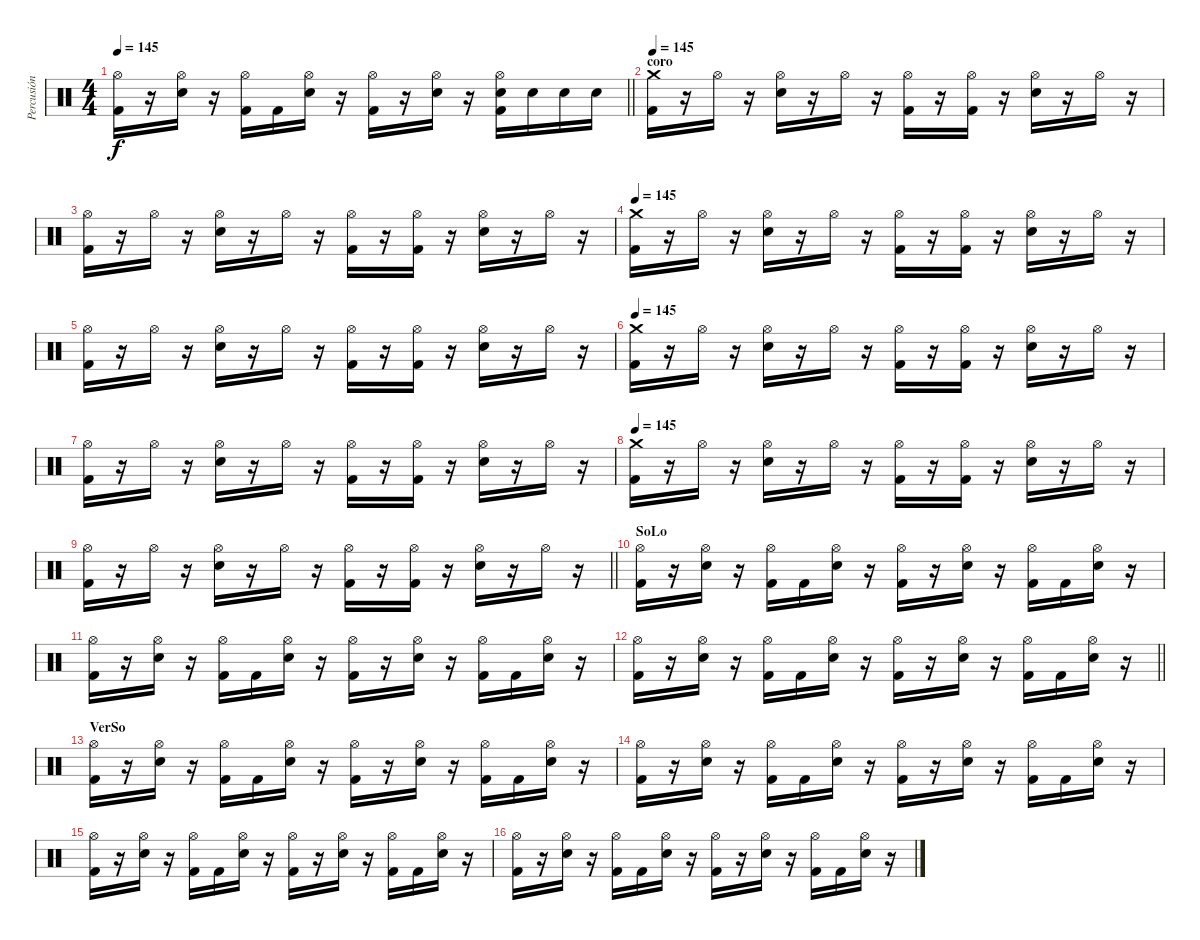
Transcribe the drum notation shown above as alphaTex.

\track ("Percusión" "Percusión") {instrument percussion}
\staff {score}
\articulation defaults
\ts (4 4)
\tempo 145
\clef neutral
\barLineRight lightlight
\ks c
("Hi-Hat (open)" "Kick (hit) 2").16{dy f} r.16 ("Hi-Hat (open)" "Electric Snare (hit)").16 r.16 ("Hi-Hat (open)" "Kick (hit) 2").16 "Kick (hit) 2".16 ("Hi-Hat (open)" "Electric Snare (hit)").16 r.16 ("Hi-Hat (open)" "Kick (hit) 2").16 r.16 ("Hi-Hat (open)" "Electric Snare (hit)").16 r.16 ("Hi-Hat (open)" "Electric Snare (hit)" "Kick (hit) 2").16 "Electric Snare (hit)".16 "Electric Snare (hit)".16 "Electric Snare (hit)".16 |
\section ("" "coro")
\tempo 145
("Crash medium (hit)" "Kick (hit) 2").16 r.16 "Hi-Hat (open)".16 r.16 ("Hi-Hat (open)" "Electric Snare (hit)").16 r.16 "Hi-Hat (open)".16 r.16 ("Hi-Hat (open)" "Kick (hit) 2").16 r.16 ("Hi-Hat (open)" "Kick (hit) 2").16 r.16 ("Hi-Hat (open)" "Electric Snare (hit)").16 r.16 "Hi-Hat (open)".16 r.16 |
("Hi-Hat (open)" "Kick (hit) 2").16 r.16 "Hi-Hat (open)".16 r.16 ("Hi-Hat (open)" "Electric Snare (hit)").16 r.16 "Hi-Hat (open)".16 r.16 ("Hi-Hat (open)" "Kick (hit) 2").16 r.16 ("Hi-Hat (open)" "Kick (hit) 2").16 r.16 ("Hi-Hat (open)" "Electric Snare (hit)").16 r.16 "Hi-Hat (open)".16 r.16 |
\tempo 145
("Crash medium (hit)" "Kick (hit) 2").16 r.16 "Hi-Hat (open)".16 r.16 ("Hi-Hat (open)" "Electric Snare (hit)").16 r.16 "Hi-Hat (open)".16 r.16 ("Hi-Hat (open)" "Kick (hit) 2").16 r.16 ("Hi-Hat (open)" "Kick (hit) 2").16 r.16 ("Hi-Hat (open)" "Electric Snare (hit)").16 r.16 "Hi-Hat (open)".16 r.16 |
("Hi-Hat (open)" "Kick (hit) 2").16 r.16 "Hi-Hat (open)".16 r.16 ("Hi-Hat (open)" "Electric Snare (hit)").16 r.16 "Hi-Hat (open)".16 r.16 ("Hi-Hat (open)" "Kick (hit) 2").16 r.16 ("Hi-Hat (open)" "Kick (hit) 2").16 r.16 ("Hi-Hat (open)" "Electric Snare (hit)").16 r.16 "Hi-Hat (open)".16 r.16 |
\tempo 145
("Crash medium (hit)" "Kick (hit) 2").16 r.16 "Hi-Hat (open)".16 r.16 ("Hi-Hat (open)" "Electric Snare (hit)").16 r.16 "Hi-Hat (open)".16 r.16 ("Hi-Hat (open)" "Kick (hit) 2").16 r.16 ("Hi-Hat (open)" "Kick (hit) 2").16 r.16 ("Hi-Hat (open)" "Electric Snare (hit)").16 r.16 "Hi-Hat (open)".16 r.16 |
("Hi-Hat (open)" "Kick (hit) 2").16 r.16 "Hi-Hat (open)".16 r.16 ("Hi-Hat (open)" "Electric Snare (hit)").16 r.16 "Hi-Hat (open)".16 r.16 ("Hi-Hat (open)" "Kick (hit) 2").16 r.16 ("Hi-Hat (open)" "Kick (hit) 2").16 r.16 ("Hi-Hat (open)" "Electric Snare (hit)").16 r.16 "Hi-Hat (open)".16 r.16 |
\tempo 145
("Crash medium (hit)" "Kick (hit) 2").16 r.16 "Hi-Hat (open)".16 r.16 ("Hi-Hat (open)" "Electric Snare (hit)").16 r.16 "Hi-Hat (open)".16 r.16 ("Hi-Hat (open)" "Kick (hit) 2").16 r.16 ("Hi-Hat (open)" "Kick (hit) 2").16 r.16 ("Hi-Hat (open)" "Electric Snare (hit)").16 r.16 "Hi-Hat (open)".16 r.16 |
\barLineRight lightlight
("Hi-Hat (open)" "Kick (hit) 2").16 r.16 "Hi-Hat (open)".16 r.16 ("Hi-Hat (open)" "Electric Snare (hit)").16 r.16 "Hi-Hat (open)".16 r.16 ("Hi-Hat (open)" "Kick (hit) 2").16 r.16 ("Hi-Hat (open)" "Kick (hit) 2").16 r.16 ("Hi-Hat (open)" "Electric Snare (hit)").16 r.16 "Hi-Hat (open)".16 r.16 |
\section ("" "SoLo")
("Hi-Hat (open)" "Kick (hit) 2").16 r.16 ("Hi-Hat (open)" "Electric Snare (hit)").16 r.16 ("Hi-Hat (open)" "Kick (hit) 2").16 "Kick (hit) 2".16 ("Hi-Hat (open)" "Electric Snare (hit)").16 r.16 ("Hi-Hat (open)" "Kick (hit) 2").16 r.16 ("Hi-Hat (open)" "Electric Snare (hit)").16 r.16 ("Hi-Hat (open)" "Kick (hit) 2").16 "Kick (hit) 2".16 ("Hi-Hat (open)" "Electric Snare (hit)").16 r.16 |
("Hi-Hat (open)" "Kick (hit) 2").16 r.16 ("Hi-Hat (open)" "Electric Snare (hit)").16 r.16 ("Hi-Hat (open)" "Kick (hit) 2").16 "Kick (hit) 2".16 ("Hi-Hat (open)" "Electric Snare (hit)").16 r.16 ("Hi-Hat (open)" "Kick (hit) 2").16 r.16 ("Hi-Hat (open)" "Electric Snare (hit)").16 r.16 ("Hi-Hat (open)" "Kick (hit) 2").16 "Kick (hit) 2".16 ("Hi-Hat (open)" "Electric Snare (hit)").16 r.16 |
\barLineRight lightlight
("Hi-Hat (open)" "Kick (hit) 2").16 r.16 ("Hi-Hat (open)" "Electric Snare (hit)").16 r.16 ("Hi-Hat (open)" "Kick (hit) 2").16 "Kick (hit) 2".16 ("Hi-Hat (open)" "Electric Snare (hit)").16 r.16 ("Hi-Hat (open)" "Kick (hit) 2").16 r.16 ("Hi-Hat (open)" "Electric Snare (hit)").16 r.16 ("Hi-Hat (open)" "Kick (hit) 2").16 "Kick (hit) 2".16 ("Hi-Hat (open)" "Electric Snare (hit)").16 r.16 |
\section ("" "VerSo")
("Hi-Hat (open)" "Kick (hit) 2").16 r.16 ("Hi-Hat (open)" "Electric Snare (hit)").16 r.16 ("Hi-Hat (open)" "Kick (hit) 2").16 "Kick (hit) 2".16 ("Hi-Hat (open)" "Electric Snare (hit)").16 r.16 ("Hi-Hat (open)" "Kick (hit) 2").16 r.16 ("Hi-Hat (open)" "Electric Snare (hit)").16 r.16 ("Hi-Hat (open)" "Kick (hit) 2").16 "Kick (hit) 2".16 ("Hi-Hat (open)" "Electric Snare (hit)").16 r.16 |
("Hi-Hat (open)" "Kick (hit) 2").16 r.16 ("Hi-Hat (open)" "Electric Snare (hit)").16 r.16 ("Hi-Hat (open)" "Kick (hit) 2").16 "Kick (hit) 2".16 ("Hi-Hat (open)" "Electric Snare (hit)").16 r.16 ("Hi-Hat (open)" "Kick (hit) 2").16 r.16 ("Hi-Hat (open)" "Electric Snare (hit)").16 r.16 ("Hi-Hat (open)" "Kick (hit) 2").16 "Kick (hit) 2".16 ("Hi-Hat (open)" "Electric Snare (hit)").16 r.16 |
("Hi-Hat (open)" "Kick (hit) 2").16 r.16 ("Hi-Hat (open)" "Electric Snare (hit)").16 r.16 ("Hi-Hat (open)" "Kick (hit) 2").16 "Kick (hit) 2".16 ("Hi-Hat (open)" "Electric Snare (hit)").16 r.16 ("Hi-Hat (open)" "Kick (hit) 2").16 r.16 ("Hi-Hat (open)" "Electric Snare (hit)").16 r.16 ("Hi-Hat (open)" "Kick (hit) 2").16 "Kick (hit) 2".16 ("Hi-Hat (open)" "Electric Snare (hit)").16 r.16 |
("Hi-Hat (open)" "Kick (hit) 2").16 r.16 ("Hi-Hat (open)" "Electric Snare (hit)").16 r.16 ("Hi-Hat (open)" "Kick (hit) 2").16 "Kick (hit) 2".16 ("Hi-Hat (open)" "Electric Snare (hit)").16 r.16 ("Hi-Hat (open)" "Kick (hit) 2").16 r.16 ("Hi-Hat (open)" "Electric Snare (hit)").16 r.16 ("Hi-Hat (open)" "Kick (hit) 2").16 "Kick (hit) 2".16 ("Hi-Hat (open)" "Electric Snare (hit)").16 r.16
